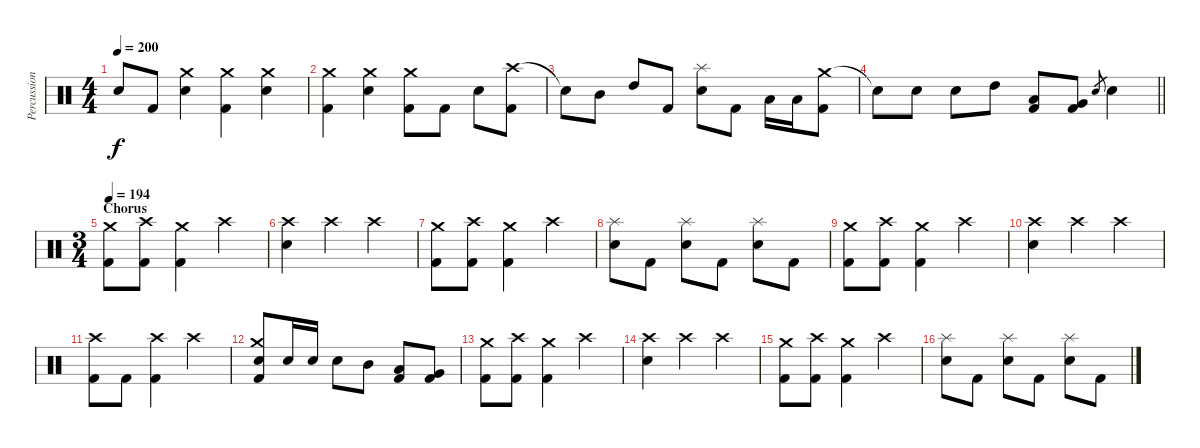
\track ("Percussion" "Percussion") {instrument percussion}
\staff {score}
\articulation defaults
\ts (4 4)
\tempo 200
\clef neutral
\ks c "Snare (hit)"{t}.8{dy f} "Kick (hit) 2".8
("Crash medium (hit)" "Electric Snare (hit)").4 ("Crash medium (hit)" "Kick (hit) 2").4 ("Crash medium (hit)" "Electric Snare (hit)").4 |
("Crash medium (hit)" "Kick (hit) 2").4 ("Crash medium (hit)" "Electric Snare (hit)").4 ("Crash medium (hit)" "Kick (hit) 2").8 "Kick (hit) 2".8 "Electric Snare (hit)".8 ("Crash high (hit)" "Kick (hit) 2").8 |
"Snare (hit)"{t}.8 "Mid Tom (hit)".8 "High Tom (hit)".8 "Kick (hit) 2".8 ("Splash (hit)" "Electric Snare (hit)").8 "Kick (hit) 2".8 "Low Tom (hit)".16 "Low Tom (hit)".16 ("Crash medium (hit)" "Kick (hit) 2").8 |
\barLineRight lightlight "Snare (hit)"{t}.8 "Electric Snare (hit)".8 "Electric Snare (hit)".8 "High Tom (hit)".8
("Low Tom (hit)" "Kick (hit) 2").8 ("Very Low Tom (hit)" "Kick (hit) 2").8 "Electric Snare (hit)".8{gr} "Electric Snare (hit)".4 |
\ts (3 4)
\section ("" "Chorus")
\tempo 194
("Crash medium (hit)" "Kick (hit) 2").8 ("Crash high (hit)" "Kick (hit) 2").8 ("Crash medium (hit)" "Kick (hit) 2").4 "Crash high (hit)".4 |
("Crash high (hit)" "Electric Snare (hit)").4 "Crash high (hit)".4 "Crash high (hit)".4 |
("Crash medium (hit)" "Kick (hit) 2").8 ("Crash high (hit)" "Kick (hit) 2").8 ("Crash medium (hit)" "Kick (hit) 2").4 "Crash high (hit)".4 |
("Splash (hit)" "Electric Snare (hit)").8 "Kick (hit) 2".8 ("Splash (hit)" "Electric Snare (hit)").8 "Kick (hit) 2".8 ("Splash (hit)" "Electric Snare (hit)").8 "Kick (hit) 2".8 |
("Crash medium (hit)" "Kick (hit) 2").8 ("Crash high (hit)" "Kick (hit) 2").8 ("Crash medium (hit)" "Kick (hit) 2").4 "Crash high (hit)".4 |
("Crash high (hit)" "Electric Snare (hit)").4 "Crash high (hit)".4 "Crash high (hit)".4 |
("Crash high (hit)" "Kick (hit) 2").8 "Kick (hit) 2".8 ("Crash high (hit)" "Kick (hit) 2").4 "Crash high (hit)".4 |
("Crash medium (hit)" "Electric Snare (hit)" "Kick (hit) 2").8{volume 13} "Electric Snare (hit)".16 "Electric Snare (hit)".16 "Electric Snare (hit)".8 "Mid Tom (hit)".8 ("Low Tom (hit)" "Kick (hit) 2").8 ("Very Low Tom (hit)" "Kick (hit) 2").8 |
("Crash medium (hit)" "Kick (hit) 2").8 ("Crash high (hit)" "Kick (hit) 2").8 ("Crash medium (hit)" "Kick (hit) 2").4 "Crash high (hit)".4 |
("Crash high (hit)" "Electric Snare (hit)").4 "Crash high (hit)".4 "Crash high (hit)".4 |
("Crash medium (hit)" "Kick (hit) 2").8 ("Crash high (hit)" "Kick (hit) 2").8 ("Crash medium (hit)" "Kick (hit) 2").4 "Crash high (hit)".4 |
("Splash (hit)" "Electric Snare (hit)").8 "Kick (hit) 2".8 ("Splash (hit)" "Electric Snare (hit)").8 "Kick (hit) 2".8 ("Splash (hit)" "Electric Snare (hit)").8 "Kick (hit) 2".8
